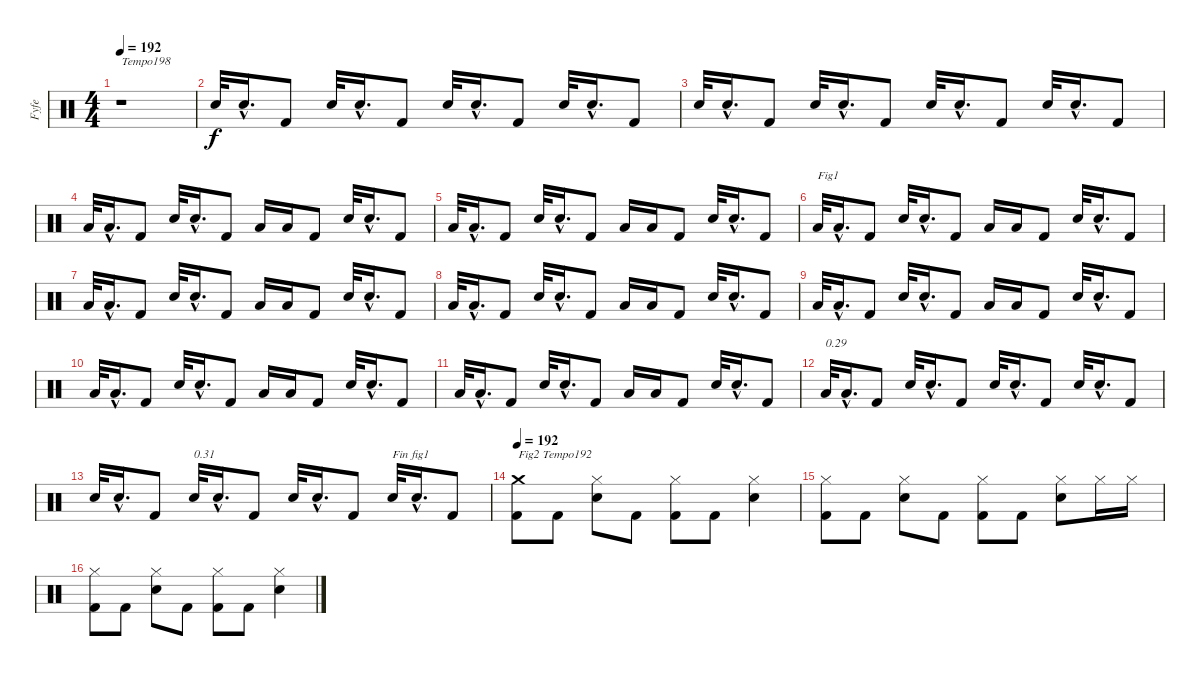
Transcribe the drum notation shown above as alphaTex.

\track ("Fyfe" "Fyfe") {instrument percussion}
\staff {score}
\articulation defaults
\ts (4 4)
\tempo 192
\tempo 198
\tempo 192
\clef neutral
\ks c
r.1{txt "Tempo198" dy f} |
"Electric Snare (hit)".32 "Electric Snare (hit)"{hac}.16{d} "Kick (hit) 2".8 "Electric Snare (hit)".32 "Electric Snare (hit)"{hac}.16{d} "Kick (hit) 2".8 "Electric Snare (hit)".32 "Electric Snare (hit)"{hac}.16{d} "Kick (hit) 2".8 "Electric Snare (hit)".32 "Electric Snare (hit)"{hac}.16{d} "Kick (hit) 2".8 |
"Electric Snare (hit)".32 "Electric Snare (hit)"{hac}.16{d} "Kick (hit) 2".8 "Electric Snare (hit)".32 "Electric Snare (hit)"{hac}.16{d} "Kick (hit) 2".8 "Electric Snare (hit)".32 "Electric Snare (hit)"{hac}.16{d} "Kick (hit) 2".8 "Electric Snare (hit)".32 "Electric Snare (hit)"{hac}.16{d} "Kick (hit) 2".8 |
"Low Tom (hit)".32 "Low Tom (hit)"{hac}.16{d} "Kick (hit) 2".8 "Electric Snare (hit)".32 "Electric Snare (hit)"{hac}.16{d} "Kick (hit) 2".8 "Low Tom (hit)".16 "Low Tom (hit)".16 "Kick (hit) 2".8 "Electric Snare (hit)".32 "Electric Snare (hit)"{hac}.16{d} "Kick (hit) 2".8 |
"Low Tom (hit)".32 "Low Tom (hit)"{hac}.16{d} "Kick (hit) 2".8 "Electric Snare (hit)".32 "Electric Snare (hit)"{hac}.16{d} "Kick (hit) 2".8 "Low Tom (hit)".16 "Low Tom (hit)".16 "Kick (hit) 2".8 "Electric Snare (hit)".32 "Electric Snare (hit)"{hac}.16{d} "Kick (hit) 2".8 |
"Low Tom (hit)".32{txt "Fig1"} "Low Tom (hit)"{hac}.16{d} "Kick (hit) 2".8 "Electric Snare (hit)".32 "Electric Snare (hit)"{hac}.16{d} "Kick (hit) 2".8 "Low Tom (hit)".16 "Low Tom (hit)".16 "Kick (hit) 2".8 "Electric Snare (hit)".32 "Electric Snare (hit)"{hac}.16{d} "Kick (hit) 2".8 |
"Low Tom (hit)".32 "Low Tom (hit)"{hac}.16{d} "Kick (hit) 2".8 "Electric Snare (hit)".32 "Electric Snare (hit)"{hac}.16{d} "Kick (hit) 2".8 "Low Tom (hit)".16 "Low Tom (hit)".16 "Kick (hit) 2".8 "Electric Snare (hit)".32 "Electric Snare (hit)"{hac}.16{d} "Kick (hit) 2".8 |
"Low Tom (hit)".32 "Low Tom (hit)"{hac}.16{d} "Kick (hit) 2".8 "Electric Snare (hit)".32 "Electric Snare (hit)"{hac}.16{d} "Kick (hit) 2".8 "Low Tom (hit)".16 "Low Tom (hit)".16 "Kick (hit) 2".8 "Electric Snare (hit)".32 "Electric Snare (hit)"{hac}.16{d} "Kick (hit) 2".8 |
"Low Tom (hit)".32 "Low Tom (hit)"{hac}.16{d} "Kick (hit) 2".8 "Electric Snare (hit)".32 "Electric Snare (hit)"{hac}.16{d} "Kick (hit) 2".8 "Low Tom (hit)".16 "Low Tom (hit)".16 "Kick (hit) 2".8 "Electric Snare (hit)".32 "Electric Snare (hit)"{hac}.16{d} "Kick (hit) 2".8 |
"Low Tom (hit)".32 "Low Tom (hit)"{hac}.16{d} "Kick (hit) 2".8 "Electric Snare (hit)".32 "Electric Snare (hit)"{hac}.16{d} "Kick (hit) 2".8 "Low Tom (hit)".16 "Low Tom (hit)".16 "Kick (hit) 2".8 "Electric Snare (hit)".32 "Electric Snare (hit)"{hac}.16{d} "Kick (hit) 2".8 |
"Low Tom (hit)".32 "Low Tom (hit)"{hac}.16{d} "Kick (hit) 2".8 "Electric Snare (hit)".32 "Electric Snare (hit)"{hac}.16{d} "Kick (hit) 2".8 "Low Tom (hit)".16 "Low Tom (hit)".16 "Kick (hit) 2".8 "Electric Snare (hit)".32 "Electric Snare (hit)"{hac}.16{d} "Kick (hit) 2".8 |
"Low Tom (hit)".32{txt "0.29"} "Low Tom (hit)"{hac}.16{d} "Kick (hit) 2".8 "Electric Snare (hit)".32 "Electric Snare (hit)"{hac}.16{d} "Kick (hit) 2".8 "Electric Snare (hit)".32 "Electric Snare (hit)"{hac}.16{d} "Kick (hit) 2".8 "Electric Snare (hit)".32 "Electric Snare (hit)"{hac}.16{d} "Kick (hit) 2".8 |
"Electric Snare (hit)".32 "Electric Snare (hit)"{hac}.16{d} "Kick (hit) 2".8 "Electric Snare (hit)".32{txt "0.31"} "Electric Snare (hit)"{hac}.16{d} "Kick (hit) 2".8 "Electric Snare (hit)".32 "Electric Snare (hit)"{hac}.16{d} "Kick (hit) 2".8 "Electric Snare (hit)".32{txt "Fin fig1"} "Electric Snare (hit)"{hac}.16{d} "Kick (hit) 2".8 |
\tempo 192
("Kick (hit) 2" "Crash medium (hit)").8{txt "Fig2 Tempo192"} "Kick (hit) 2".8 ("Electric Snare (hit)" "Hi-Hat (closed)").8 "Kick (hit) 2".8 ("Kick (hit) 2" "Hi-Hat (closed)").8 "Kick (hit) 2".8 ("Electric Snare (hit)" "Hi-Hat (closed)").4 |
("Kick (hit) 2" "Hi-Hat (closed)").8 "Kick (hit) 2".8 ("Electric Snare (hit)" "Hi-Hat (closed)").8 "Kick (hit) 2".8 ("Kick (hit) 2" "Hi-Hat (closed)").8 "Kick (hit) 2".8 ("Electric Snare (hit)" "Hi-Hat (closed)").8 "Hi-Hat (closed)".16 "Hi-Hat (closed)".16 |
("Kick (hit) 2" "Hi-Hat (closed)").8 "Kick (hit) 2".8 ("Electric Snare (hit)" "Hi-Hat (closed)").8 "Kick (hit) 2".8 ("Kick (hit) 2" "Hi-Hat (closed)").8 "Kick (hit) 2".8 ("Electric Snare (hit)" "Hi-Hat (closed)").4
